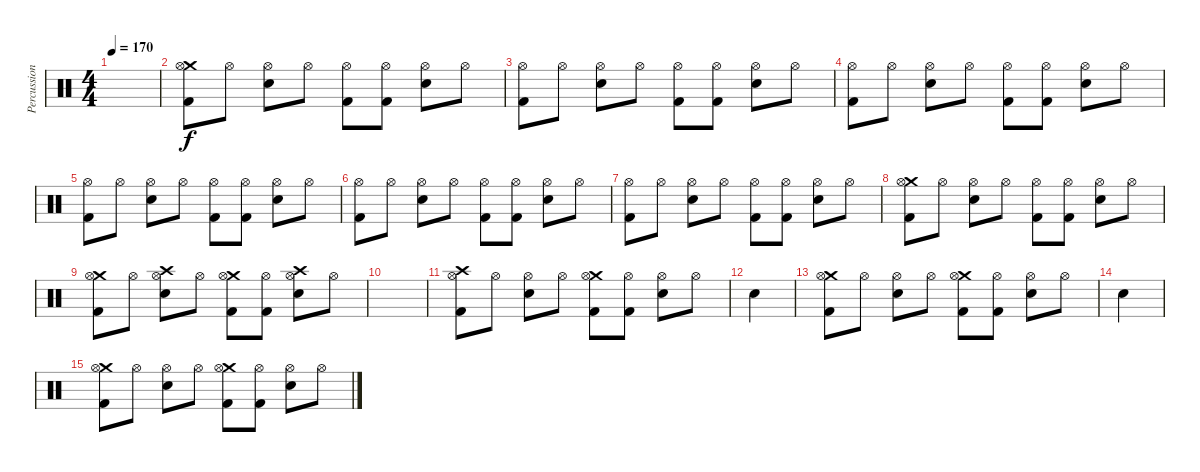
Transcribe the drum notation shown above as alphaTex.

\track ("Percussion" "Percussion") {instrument percussion}
\staff {score}
\articulation defaults
\ts (4 4)
\tempo 170
\clef neutral
\ks c
|
("Crash medium (hit)" "Kick (hit) 2" "Hi-Hat (open)").8 "Hi-Hat (open)".8 ("Snare (hit) 2" "Hi-Hat (open)").8 "Hi-Hat (open)".8 ("Kick (hit) 2" "Hi-Hat (open)").8 ("Kick (hit) 2" "Hi-Hat (open)").8 ("Snare (hit) 2" "Hi-Hat (open)").8 "Hi-Hat (open)".8 |
("Kick (hit) 2" "Hi-Hat (open)").8 "Hi-Hat (open)".8 ("Snare (hit) 2" "Hi-Hat (open)").8 "Hi-Hat (open)".8 ("Kick (hit) 2" "Hi-Hat (open)").8 ("Kick (hit) 2" "Hi-Hat (open)").8 ("Snare (hit) 2" "Hi-Hat (open)").8 "Hi-Hat (open)".8 |
("Kick (hit) 2" "Hi-Hat (open)").8 "Hi-Hat (open)".8 ("Snare (hit) 2" "Hi-Hat (open)").8 "Hi-Hat (open)".8 ("Kick (hit) 2" "Hi-Hat (open)").8 ("Kick (hit) 2" "Hi-Hat (open)").8 ("Snare (hit) 2" "Hi-Hat (open)").8 "Hi-Hat (open)".8 |
("Kick (hit) 2" "Hi-Hat (open)").8 "Hi-Hat (open)".8 ("Snare (hit) 2" "Hi-Hat (open)").8 "Hi-Hat (open)".8 ("Kick (hit) 2" "Hi-Hat (open)").8 ("Kick (hit) 2" "Hi-Hat (open)").8 ("Snare (hit) 2" "Hi-Hat (open)").8 "Hi-Hat (open)".8 |
("Kick (hit) 2" "Hi-Hat (open)").8 "Hi-Hat (open)".8 ("Snare (hit) 2" "Hi-Hat (open)").8 "Hi-Hat (open)".8 ("Kick (hit) 2" "Hi-Hat (open)").8 ("Kick (hit) 2" "Hi-Hat (open)").8 ("Snare (hit) 2" "Hi-Hat (open)").8 "Hi-Hat (open)".8 |
("Kick (hit) 2" "Hi-Hat (open)").8 "Hi-Hat (open)".8 ("Snare (hit) 2" "Hi-Hat (open)").8 "Hi-Hat (open)".8 ("Kick (hit) 2" "Hi-Hat (open)").8 ("Kick (hit) 2" "Hi-Hat (open)").8 ("Snare (hit) 2" "Hi-Hat (open)").8 "Hi-Hat (open)".8 |
("Crash medium (hit)" "Kick (hit) 2" "Hi-Hat (open)").8 "Hi-Hat (open)".8 ("Snare (hit) 2" "Hi-Hat (open)").8 "Hi-Hat (open)".8 ("Kick (hit) 2" "Hi-Hat (open)").8 ("Kick (hit) 2" "Hi-Hat (open)").8 ("Snare (hit) 2" "Hi-Hat (open)").8 "Hi-Hat (open)".8 |
("Crash medium (hit)" "Kick (hit) 2" "Hi-Hat (open)").8 "Hi-Hat (open)".8 ("Crash high (hit)" "Snare (hit) 2" "Hi-Hat (open)").8 "Hi-Hat (open)".8 ("Crash medium (hit)" "Kick (hit) 2" "Hi-Hat (open)").8 ("Kick (hit) 2" "Hi-Hat (open)").8 ("Crash high (hit)" "Snare (hit) 2" "Hi-Hat (open)").8 "Hi-Hat (open)".8 |
|
("Crash high (hit)" "Kick (hit) 2" "Hi-Hat (open)").8 "Hi-Hat (open)".8 ("Snare (hit) 2" "Hi-Hat (open)").8 "Hi-Hat (open)".8 ("Crash medium (hit)" "Kick (hit) 2" "Hi-Hat (open)").8 ("Kick (hit) 2" "Hi-Hat (open)").8 ("Snare (hit) 2" "Hi-Hat (open)").8 "Hi-Hat (open)".8 |
"Snare (hit) 2".4 |
("Crash medium (hit)" "Kick (hit) 2" "Hi-Hat (open)").8 "Hi-Hat (open)".8 ("Snare (hit) 2" "Hi-Hat (open)").8 "Hi-Hat (open)".8 ("Crash medium (hit)" "Kick (hit) 2" "Hi-Hat (open)").8 ("Kick (hit) 2" "Hi-Hat (open)").8 ("Snare (hit) 2" "Hi-Hat (open)").8 "Hi-Hat (open)".8 |
"Snare (hit) 2".4 |
("Crash medium (hit)" "Kick (hit) 2" "Hi-Hat (open)").8 "Hi-Hat (open)".8 ("Snare (hit) 2" "Hi-Hat (open)").8 "Hi-Hat (open)".8 ("Crash medium (hit)" "Kick (hit) 2" "Hi-Hat (open)").8 ("Kick (hit) 2" "Hi-Hat (open)").8 ("Snare (hit) 2" "Hi-Hat (open)").8 "Hi-Hat (open)".8
